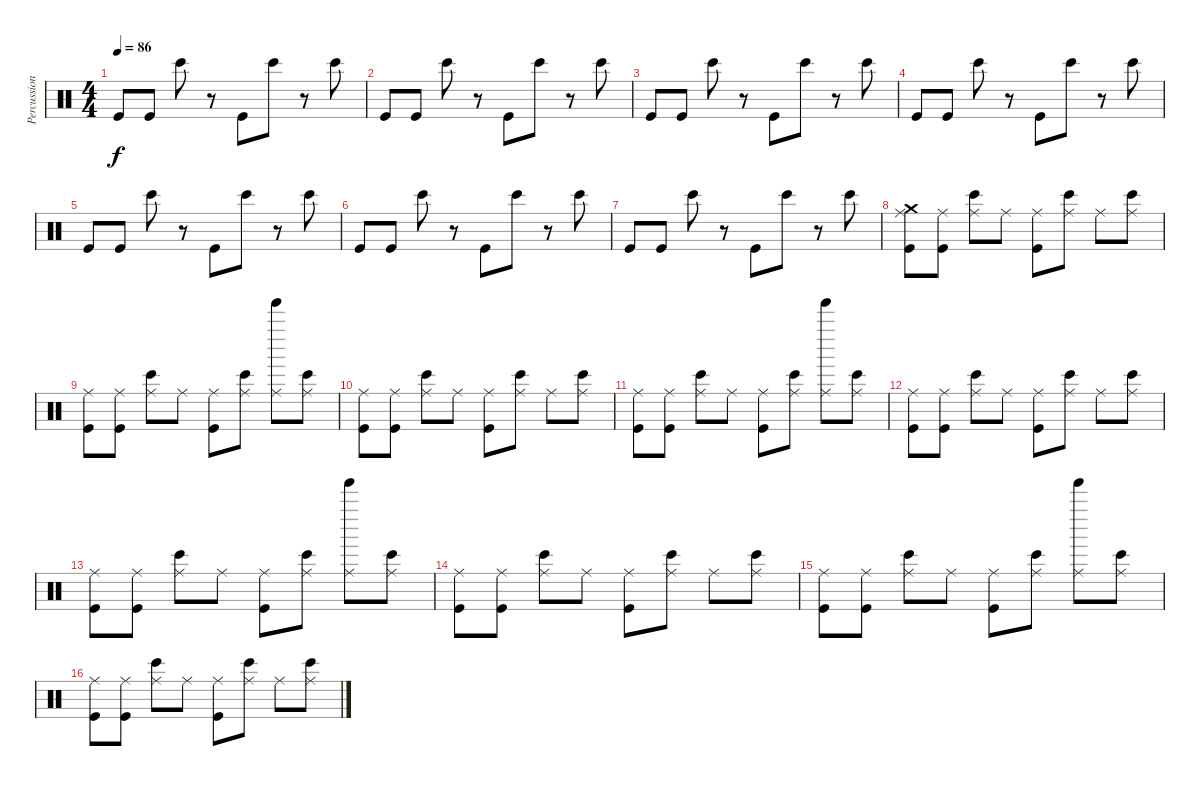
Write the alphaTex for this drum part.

\track ("Percussion" "Percussion") {instrument percussion}
\staff {score}
\articulation defaults
\ts (4 4)
\tempo 86
\clef neutral
\ks c "Kick (hit)".8{dy f} "Kick (hit)".8 "Bongo High (hit)".8
r.8 "Kick (hit)".8 "Bongo High (hit)".8 r.8 "Bongo High (hit)".8 |
"Kick (hit)".8 "Kick (hit)".8 "Bongo High (hit)".8 r.8 "Kick (hit)".8 "Bongo High (hit)".8 r.8 "Bongo High (hit)".8 |
"Kick (hit)".8 "Kick (hit)".8 "Bongo High (hit)".8 r.8 "Kick (hit)".8 "Bongo High (hit)".8 r.8 "Bongo High (hit)".8 |
"Kick (hit)".8 "Kick (hit)".8 "Bongo High (hit)".8 r.8 "Kick (hit)".8 "Bongo High (hit)".8 r.8 "Bongo High (hit)".8 |
"Kick (hit)".8 "Kick (hit)".8 "Bongo High (hit)".8 r.8 "Kick (hit)".8 "Bongo High (hit)".8 r.8 "Bongo High (hit)".8 |
"Kick (hit)".8 "Kick (hit)".8 "Bongo High (hit)".8 r.8 "Kick (hit)".8 "Bongo High (hit)".8 r.8 "Bongo High (hit)".8 |
"Kick (hit)".8 "Kick (hit)".8 "Bongo High (hit)".8 r.8 "Kick (hit)".8 "Bongo High (hit)".8 r.8 "Bongo High (hit)".8 |
("Ride (middle)" "Kick (hit)" "Crash medium (hit)").8 ("Ride (middle)" "Kick (hit)").8 ("Ride (middle)" "Bongo High (hit)").8 "Ride (middle)".8 ("Ride (middle)" "Kick (hit)").8 ("Ride (middle)" "Bongo High (hit)").8 "Ride (middle)".8 ("Ride (middle)" "Bongo High (hit)").8 |
("Ride (middle)" "Kick (hit)").8 ("Ride (middle)" "Kick (hit)").8 ("Ride (middle)" "Bongo High (hit)").8 "Ride (middle)".8 ("Ride (middle)" "Kick (hit)").8 ("Ride (middle)" "Bongo High (hit)").8 ("Ride (middle)" "Tinkle Bell (hit)").8 ("Ride (middle)" "Bongo High (hit)").8 |
("Ride (middle)" "Kick (hit)").8 ("Ride (middle)" "Kick (hit)").8 ("Ride (middle)" "Bongo High (hit)").8 "Ride (middle)".8 ("Ride (middle)" "Kick (hit)").8 ("Ride (middle)" "Bongo High (hit)").8 "Ride (middle)".8 ("Ride (middle)" "Bongo High (hit)").8 |
("Ride (middle)" "Kick (hit)").8 ("Ride (middle)" "Kick (hit)").8 ("Ride (middle)" "Bongo High (hit)").8 "Ride (middle)".8 ("Ride (middle)" "Kick (hit)").8 ("Ride (middle)" "Bongo High (hit)").8 ("Ride (middle)" "Tinkle Bell (hit)").8 ("Ride (middle)" "Bongo High (hit)").8 |
("Ride (middle)" "Kick (hit)").8 ("Ride (middle)" "Kick (hit)").8 ("Ride (middle)" "Bongo High (hit)").8 "Ride (middle)".8 ("Ride (middle)" "Kick (hit)").8 ("Ride (middle)" "Bongo High (hit)").8 "Ride (middle)".8 ("Ride (middle)" "Bongo High (hit)").8 |
("Ride (middle)" "Kick (hit)").8 ("Ride (middle)" "Kick (hit)").8 ("Ride (middle)" "Bongo High (hit)").8 "Ride (middle)".8 ("Ride (middle)" "Kick (hit)").8 ("Ride (middle)" "Bongo High (hit)").8 ("Ride (middle)" "Tinkle Bell (hit)").8 ("Ride (middle)" "Bongo High (hit)").8 |
("Ride (middle)" "Kick (hit)").8 ("Ride (middle)" "Kick (hit)").8 ("Ride (middle)" "Bongo High (hit)").8 "Ride (middle)".8 ("Ride (middle)" "Kick (hit)").8 ("Ride (middle)" "Bongo High (hit)").8 "Ride (middle)".8 ("Ride (middle)" "Bongo High (hit)").8 |
("Ride (middle)" "Kick (hit)").8 ("Ride (middle)" "Kick (hit)").8 ("Ride (middle)" "Bongo High (hit)").8 "Ride (middle)".8 ("Ride (middle)" "Kick (hit)").8 ("Ride (middle)" "Bongo High (hit)").8 ("Ride (middle)" "Tinkle Bell (hit)").8 ("Ride (middle)" "Bongo High (hit)").8 |
("Ride (middle)" "Kick (hit)").8 ("Ride (middle)" "Kick (hit)").8 ("Ride (middle)" "Bongo High (hit)").8 "Ride (middle)".8 ("Ride (middle)" "Kick (hit)").8 ("Ride (middle)" "Bongo High (hit)").8 "Ride (middle)".8 ("Ride (middle)" "Bongo High (hit)").8
